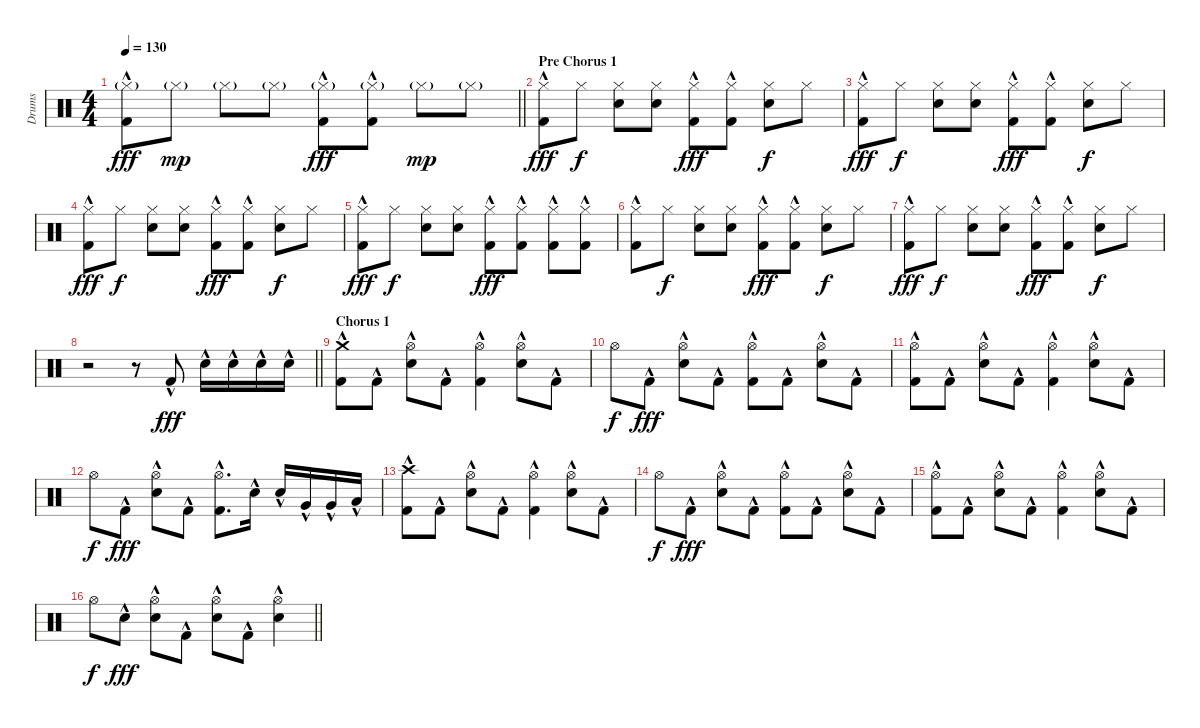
\track ("Drums" "Drums") {instrument percussion}
\staff {score}
\articulation defaults
\ts (4 4)
\tempo 130
\clef neutral
\barLineRight lightlight
\ks c
("Hi-Hat (closed)"{g} "Kick (hit) 2"{hac}).8{dy fff} "Hi-Hat (closed)"{g}.8{dy mp} "Hi-Hat (closed)"{g}.8 "Hi-Hat (closed)"{g}.8 ("Hi-Hat (closed)"{g} "Kick (hit) 2"{hac}).8{dy fff} ("Hi-Hat (closed)"{g} "Kick (hit) 2"{hac}).8 "Hi-Hat (closed)"{g}.8{dy mp} "Hi-Hat (closed)"{g}.8 |
\section ("" "Pre Chorus 1")
("Hi-Hat (closed)" "Kick (hit) 2"{hac}).8{dy fff} "Hi-Hat (closed)".8{dy f} ("Hi-Hat (closed)" "Electric Snare (hit)").8 ("Hi-Hat (closed)" "Electric Snare (hit)").8 ("Hi-Hat (closed)" "Kick (hit) 2"{hac}).8{dy fff} ("Hi-Hat (closed)" "Kick (hit) 2"{hac}).8 ("Hi-Hat (closed)" "Electric Snare (hit)").8{dy f} "Hi-Hat (closed)".8 |
("Hi-Hat (closed)" "Kick (hit) 2"{hac}).8{dy fff} "Hi-Hat (closed)".8{dy f} ("Hi-Hat (closed)" "Electric Snare (hit)").8 ("Hi-Hat (closed)" "Electric Snare (hit)").8 ("Hi-Hat (closed)" "Kick (hit) 2"{hac}).8{dy fff} ("Hi-Hat (closed)" "Kick (hit) 2"{hac}).8 ("Hi-Hat (closed)" "Electric Snare (hit)").8{dy f} "Hi-Hat (closed)".8 |
("Hi-Hat (closed)" "Kick (hit) 2"{hac}).8{dy fff} "Hi-Hat (closed)".8{dy f} ("Hi-Hat (closed)" "Electric Snare (hit)").8 ("Hi-Hat (closed)" "Electric Snare (hit)").8 ("Hi-Hat (closed)" "Kick (hit) 2"{hac}).8{dy fff} ("Hi-Hat (closed)" "Kick (hit) 2"{hac}).8 ("Hi-Hat (closed)" "Electric Snare (hit)").8{dy f} "Hi-Hat (closed)".8 |
("Hi-Hat (closed)" "Kick (hit) 2"{hac}).8{dy fff} "Hi-Hat (closed)".8{dy f} ("Hi-Hat (closed)" "Electric Snare (hit)").8 ("Hi-Hat (closed)" "Electric Snare (hit)").8 ("Hi-Hat (closed)" "Kick (hit) 2"{hac}).8{dy fff} ("Hi-Hat (closed)" "Kick (hit) 2"{hac}).8 ("Hi-Hat (closed)" "Kick (hit) 2"{hac}).8 ("Hi-Hat (closed)" "Kick (hit) 2"{hac}).8 |
("Hi-Hat (closed)" "Kick (hit) 2"{hac}).8 "Hi-Hat (closed)".8{dy f} ("Hi-Hat (closed)" "Electric Snare (hit)").8 ("Hi-Hat (closed)" "Electric Snare (hit)").8 ("Hi-Hat (closed)" "Kick (hit) 2"{hac}).8{dy fff} ("Hi-Hat (closed)" "Kick (hit) 2"{hac}).8 ("Hi-Hat (closed)" "Electric Snare (hit)").8{dy f} "Hi-Hat (closed)".8 |
("Hi-Hat (closed)" "Kick (hit) 2"{hac}).8{dy fff} "Hi-Hat (closed)".8{dy f} ("Hi-Hat (closed)" "Electric Snare (hit)").8 ("Hi-Hat (closed)" "Electric Snare (hit)").8 ("Hi-Hat (closed)" "Kick (hit) 2"{hac}).8{dy fff} ("Hi-Hat (closed)" "Kick (hit) 2"{hac}).8 ("Hi-Hat (closed)" "Electric Snare (hit)").8{dy f} "Hi-Hat (closed)".8 |
\barLineRight lightlight
r.2{volume 11} r.8 "Kick (hit) 2"{hac}.8{dy fff} "Electric Snare (hit)"{hac}.16 "Electric Snare (hit)"{hac}.16 "Electric Snare (hit)"{hac}.16 "Electric Snare (hit)"{hac}.16 |
\section ("" "Chorus 1")
("Crash medium (hit)" "Kick (hit) 2"{hac}).8 "Kick (hit) 2"{hac}.8 ("Hi-Hat (open)" "Electric Snare (hit)"{hac}).8 "Kick (hit) 2"{hac}.8 ("Hi-Hat (open)" "Kick (hit) 2"{hac}).4 ("Hi-Hat (open)" "Electric Snare (hit)"{hac}).8 "Kick (hit) 2"{hac}.8 |
"Hi-Hat (open)".8{dy f} "Kick (hit) 2"{hac}.8{dy fff} ("Hi-Hat (open)" "Electric Snare (hit)"{hac}).8 "Kick (hit) 2"{hac}.8 ("Hi-Hat (open)" "Kick (hit) 2"{hac}).8 "Kick (hit) 2"{hac}.8 ("Hi-Hat (open)" "Electric Snare (hit)"{hac}).8 "Kick (hit) 2"{hac}.8 |
("Hi-Hat (open)" "Kick (hit) 2"{hac}).8 "Kick (hit) 2"{hac}.8 ("Hi-Hat (open)" "Electric Snare (hit)"{hac}).8 "Kick (hit) 2"{hac}.8 ("Hi-Hat (open)" "Kick (hit) 2"{hac}).4 ("Hi-Hat (open)" "Electric Snare (hit)"{hac}).8 "Kick (hit) 2"{hac}.8 |
"Hi-Hat (open)".8{dy f} "Kick (hit) 2"{hac}.8{dy fff} ("Hi-Hat (open)" "Electric Snare (hit)"{hac}).8 "Kick (hit) 2"{hac}.8 ("Hi-Hat (open)" "Kick (hit) 2"{hac}).8{d} "Electric Snare (hit)"{hac}.16 "Electric Snare (hit)"{hac}.16 "Very Low Tom (hit)"{hac}.16 "Very Low Tom (hit)"{hac}.16 "Low Floor Tom (hit)"{hac}.16 |
("Crash high (hit)" "Kick (hit) 2"{hac}).8 "Kick (hit) 2"{hac}.8 ("Hi-Hat (open)" "Snare (hit) 2"{hac}).8 "Kick (hit) 2"{hac}.8 ("Hi-Hat (open)" "Kick (hit) 2"{hac}).4 ("Hi-Hat (open)" "Electric Snare (hit)"{hac}).8 "Kick (hit) 2"{hac}.8 |
"Hi-Hat (open)".8{dy f} "Kick (hit) 2"{hac}.8{dy fff} ("Hi-Hat (open)" "Electric Snare (hit)"{hac}).8 "Kick (hit) 2"{hac}.8 ("Hi-Hat (open)" "Kick (hit) 2"{hac}).8 "Kick (hit) 2"{hac}.8 ("Hi-Hat (open)" "Electric Snare (hit)"{hac}).8 "Kick (hit) 2"{hac}.8 |
("Hi-Hat (open)" "Kick (hit) 2"{hac}).8 "Kick (hit) 2"{hac}.8 ("Hi-Hat (open)" "Electric Snare (hit)"{hac}).8 "Kick (hit) 2"{hac}.8 ("Hi-Hat (open)" "Kick (hit) 2"{hac}).4 ("Hi-Hat (open)" "Electric Snare (hit)"{hac}).8 "Kick (hit) 2"{hac}.8 |
\barLineRight lightlight "Hi-Hat (open)".8{dy f} "Electric Snare (hit)"{hac}.8{dy fff}
("Hi-Hat (open)" "Electric Snare (hit)"{hac}).8 "Kick (hit) 2"{hac}.8 ("Hi-Hat (open)" "Electric Snare (hit)"{hac}).8 "Kick (hit) 2"{hac}.8 ("Hi-Hat (open)" "Electric Snare (hit)"{hac}).4
